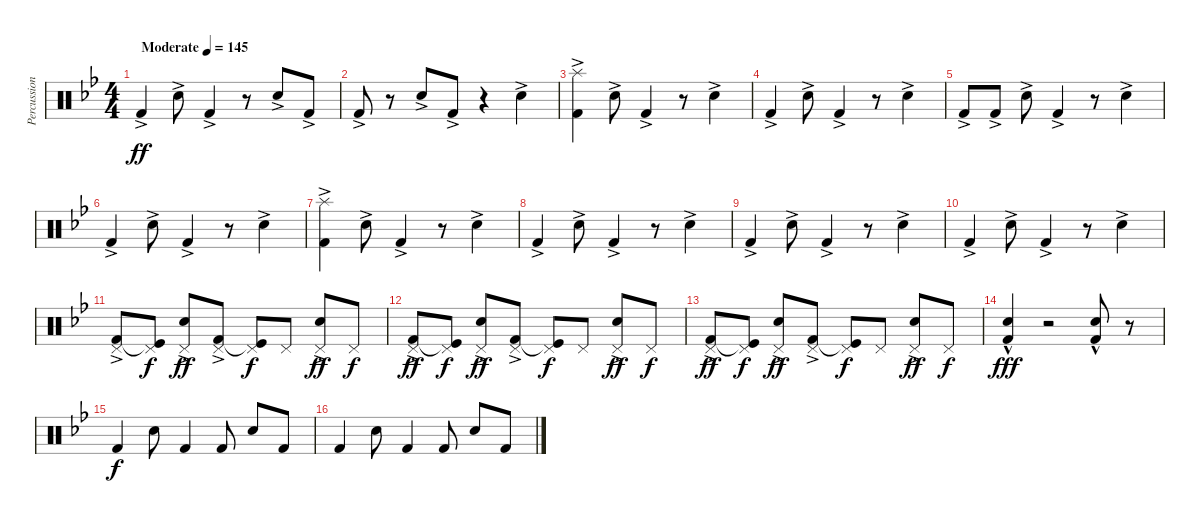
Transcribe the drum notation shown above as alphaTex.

\track ("Percussion" "Percussion") {instrument percussion}
\staff {score}
\articulation defaults
\ts (4 4)
\tempo (145 "Moderate")
\clef neutral
\ks gminor "Kick (hit) 2"{ac}.4{dy ff} "Hand Clap (hit)"{ac}.8 "Kick (hit) 2"{ac}.4
r.8 "Hand Clap (hit)"{ac}.8 "Kick (hit) 2"{ac}.8 |
"Kick (hit) 2"{ac}.8 r.8 "Hand Clap (hit)"{ac}.8 "Kick (hit) 2"{ac}.8 r.4 "Hand Clap (hit)"{ac}.4 |
("Splash (hit)" "Kick (hit) 2"{ac}).4 "Hand Clap (hit)"{ac}.8 "Kick (hit) 2"{ac}.4 r.8 "Hand Clap (hit)"{ac}.4 |
"Kick (hit) 2"{ac}.4 "Hand Clap (hit)"{ac}.8 "Kick (hit) 2"{ac}.4 r.8 "Hand Clap (hit)"{ac}.4 |
"Kick (hit) 2"{ac}.8 "Kick (hit) 2"{ac}.8 "Hand Clap (hit)"{ac}.8 "Kick (hit) 2"{ac}.4 r.8 "Hand Clap (hit)"{ac}.4 |
"Kick (hit) 2"{ac}.4 "Hand Clap (hit)"{ac}.8 "Kick (hit) 2"{ac}.4 r.8 "Hand Clap (hit)"{ac}.4 |
("Splash (hit)" "Kick (hit) 2"{ac}).4 "Hand Clap (hit)"{ac}.8 "Kick (hit) 2"{ac}.4 r.8 "Hand Clap (hit)"{ac}.4 |
"Kick (hit) 2"{ac}.4 "Hand Clap (hit)"{ac}.8 "Kick (hit) 2"{ac}.4 r.8 "Hand Clap (hit)"{ac}.4 |
"Kick (hit) 2"{ac}.4 "Hand Clap (hit)"{ac}.8 "Kick (hit) 2"{ac}.4 r.8 "Hand Clap (hit)"{ac}.4 |
"Kick (hit) 2"{ac}.4 "Hand Clap (hit)"{ac}.8 "Kick (hit) 2"{ac}.4 r.8 "Hand Clap (hit)"{ac}.4 |
("Pedal Hi-Hat (hit)" "Kick (hit) 2"{ac}).8 ("Pedal Hi-Hat (hit)" "Kick (hit)"{t}).8{dy f} ("Pedal Hi-Hat (hit)" "Hand Clap (hit)"{ac}).8{dy ff} ("Pedal Hi-Hat (hit)" "Kick (hit) 2"{ac}).8 ("Pedal Hi-Hat (hit)" "Kick (hit)"{t}).8{dy f} "Pedal Hi-Hat (hit)".8 ("Pedal Hi-Hat (hit)" "Hand Clap (hit)"{ac}).8{dy ff} "Pedal Hi-Hat (hit)".8{dy f} |
("Pedal Hi-Hat (hit)" "Kick (hit) 2"{ac}).8{dy ff} ("Pedal Hi-Hat (hit)" "Kick (hit)"{t}).8{dy f} ("Pedal Hi-Hat (hit)" "Hand Clap (hit)"{ac}).8{dy ff} ("Pedal Hi-Hat (hit)" "Kick (hit) 2"{ac}).8 ("Pedal Hi-Hat (hit)" "Kick (hit)"{t}).8{dy f} "Pedal Hi-Hat (hit)".8 ("Pedal Hi-Hat (hit)" "Hand Clap (hit)"{ac}).8{dy ff} "Pedal Hi-Hat (hit)".8{dy f} |
("Pedal Hi-Hat (hit)" "Kick (hit) 2"{ac}).8{dy ff} ("Pedal Hi-Hat (hit)" "Kick (hit)"{t}).8{dy f} ("Pedal Hi-Hat (hit)" "Hand Clap (hit)"{ac}).8{dy ff} ("Pedal Hi-Hat (hit)" "Kick (hit) 2"{ac}).8 ("Pedal Hi-Hat (hit)" "Kick (hit)"{t}).8{dy f} "Pedal Hi-Hat (hit)".8 ("Pedal Hi-Hat (hit)" "Hand Clap (hit)"{ac}).8{dy ff} "Pedal Hi-Hat (hit)".8{dy f} |
("Electric Snare (hit)"{hac} "Kick (hit) 2").4{dy fff} r.2 ("Electric Snare (hit)"{hac} "Kick (hit) 2").8 r.8 |
"Kick (hit) 2".4{dy f} "Electric Snare (hit)".8 "Kick (hit) 2".4 "Kick (hit) 2".8 "Electric Snare (hit)".8 "Kick (hit) 2".8 |
"Kick (hit) 2".4 "Electric Snare (hit)".8 "Kick (hit) 2".4 "Kick (hit) 2".8 "Electric Snare (hit)".8 "Kick (hit) 2".8
